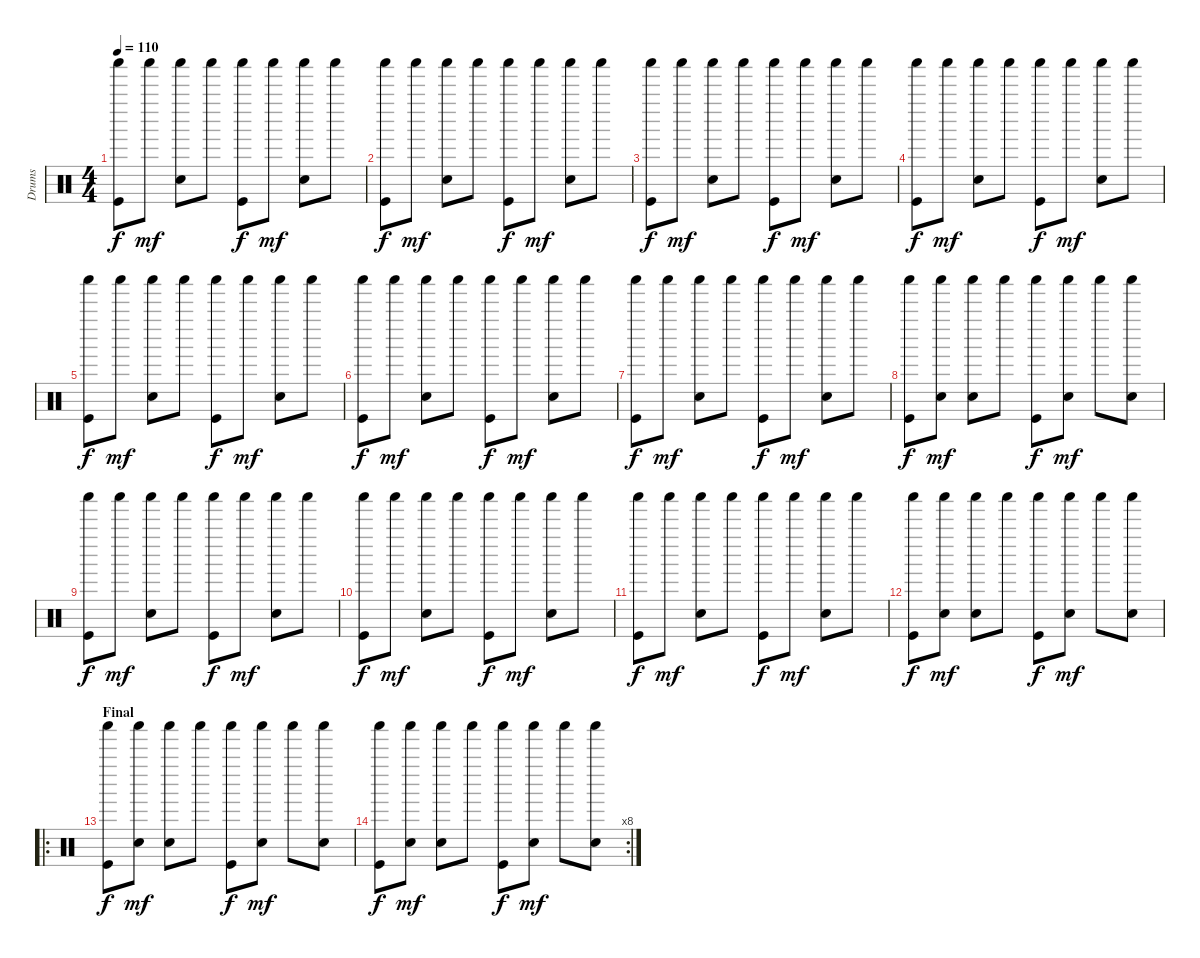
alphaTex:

\track ("Drums" "Drums") {instrument percussion}
\staff {score}
\articulation defaults
\ts (4 4)
\tempo 110
\clef neutral
\ks c
("Shaker (hit)" "Kick (hit)").8{dy f} "Shaker (hit)".8{dy mf} ("Shaker (hit)" "Snare (hit) 2").8 "Shaker (hit)".8 ("Shaker (hit)" "Kick (hit)").8{dy f} "Shaker (hit)".8{dy mf} ("Shaker (hit)" "Snare (hit) 2").8 "Shaker (hit)".8 |
("Shaker (hit)" "Kick (hit)").8{dy f} "Shaker (hit)".8{dy mf} ("Shaker (hit)" "Snare (hit) 2").8 "Shaker (hit)".8 ("Shaker (hit)" "Kick (hit)").8{dy f} "Shaker (hit)".8{dy mf} ("Shaker (hit)" "Snare (hit) 2").8 "Shaker (hit)".8 |
("Shaker (hit)" "Kick (hit)").8{dy f} "Shaker (hit)".8{dy mf} ("Shaker (hit)" "Snare (hit) 2").8 "Shaker (hit)".8 ("Shaker (hit)" "Kick (hit)").8{dy f} "Shaker (hit)".8{dy mf} ("Shaker (hit)" "Snare (hit) 2").8 "Shaker (hit)".8 |
("Shaker (hit)" "Kick (hit)").8{dy f} "Shaker (hit)".8{dy mf} ("Shaker (hit)" "Snare (hit) 2").8 "Shaker (hit)".8 ("Shaker (hit)" "Kick (hit)").8{dy f} "Shaker (hit)".8{dy mf} ("Shaker (hit)" "Snare (hit) 2").8 "Shaker (hit)".8 |
("Shaker (hit)" "Kick (hit)").8{dy f} "Shaker (hit)".8{dy mf} ("Shaker (hit)" "Snare (hit) 2").8 "Shaker (hit)".8 ("Shaker (hit)" "Kick (hit)").8{dy f} "Shaker (hit)".8{dy mf} ("Shaker (hit)" "Snare (hit) 2").8 "Shaker (hit)".8 |
("Shaker (hit)" "Kick (hit)").8{dy f} "Shaker (hit)".8{dy mf} ("Shaker (hit)" "Snare (hit) 2").8 "Shaker (hit)".8 ("Shaker (hit)" "Kick (hit)").8{dy f} "Shaker (hit)".8{dy mf} ("Shaker (hit)" "Snare (hit) 2").8 "Shaker (hit)".8 |
("Shaker (hit)" "Kick (hit)").8{dy f} "Shaker (hit)".8{dy mf} ("Shaker (hit)" "Snare (hit) 2").8 "Shaker (hit)".8 ("Shaker (hit)" "Kick (hit)").8{dy f} "Shaker (hit)".8{dy mf} ("Shaker (hit)" "Snare (hit) 2").8 "Shaker (hit)".8 |
("Shaker (hit)" "Kick (hit)").8{dy f} ("Shaker (hit)" "Snare (hit) 2").8{dy mf} ("Shaker (hit)" "Snare (hit) 2").8 "Shaker (hit)".8 ("Shaker (hit)" "Kick (hit)").8{dy f} ("Shaker (hit)" "Snare (hit) 2").8{dy mf} "Shaker (hit)".8 ("Shaker (hit)" "Snare (hit) 2").8 |
("Shaker (hit)" "Kick (hit)").8{dy f} "Shaker (hit)".8{dy mf} ("Shaker (hit)" "Snare (hit) 2").8 "Shaker (hit)".8 ("Shaker (hit)" "Kick (hit)").8{dy f} "Shaker (hit)".8{dy mf} ("Shaker (hit)" "Snare (hit) 2").8 "Shaker (hit)".8 |
("Shaker (hit)" "Kick (hit)").8{dy f} "Shaker (hit)".8{dy mf} ("Shaker (hit)" "Snare (hit) 2").8 "Shaker (hit)".8 ("Shaker (hit)" "Kick (hit)").8{dy f} "Shaker (hit)".8{dy mf} ("Shaker (hit)" "Snare (hit) 2").8 "Shaker (hit)".8 |
("Shaker (hit)" "Kick (hit)").8{dy f} "Shaker (hit)".8{dy mf} ("Shaker (hit)" "Snare (hit) 2").8 "Shaker (hit)".8 ("Shaker (hit)" "Kick (hit)").8{dy f} "Shaker (hit)".8{dy mf} ("Shaker (hit)" "Snare (hit) 2").8 "Shaker (hit)".8 |
("Shaker (hit)" "Kick (hit)").8{dy f} ("Shaker (hit)" "Snare (hit) 2").8{dy mf} ("Shaker (hit)" "Snare (hit) 2").8 "Shaker (hit)".8 ("Shaker (hit)" "Kick (hit)").8{dy f} ("Shaker (hit)" "Snare (hit) 2").8{dy mf} "Shaker (hit)".8 ("Shaker (hit)" "Snare (hit) 2").8 |
\ro
\section ("" "Final")
("Shaker (hit)" "Kick (hit)").8{dy f} ("Shaker (hit)" "Snare (hit) 2").8{dy mf} ("Shaker (hit)" "Snare (hit) 2").8 "Shaker (hit)".8 ("Shaker (hit)" "Kick (hit)").8{dy f} ("Shaker (hit)" "Snare (hit) 2").8{dy mf} "Shaker (hit)".8 ("Shaker (hit)" "Snare (hit) 2").8 |
\rc 8
("Shaker (hit)" "Kick (hit)").8{dy f} ("Shaker (hit)" "Snare (hit) 2").8{dy mf} ("Shaker (hit)" "Snare (hit) 2").8 "Shaker (hit)".8 ("Shaker (hit)" "Kick (hit)").8{dy f} ("Shaker (hit)" "Snare (hit) 2").8{dy mf} "Shaker (hit)".8 ("Shaker (hit)" "Snare (hit) 2").8
